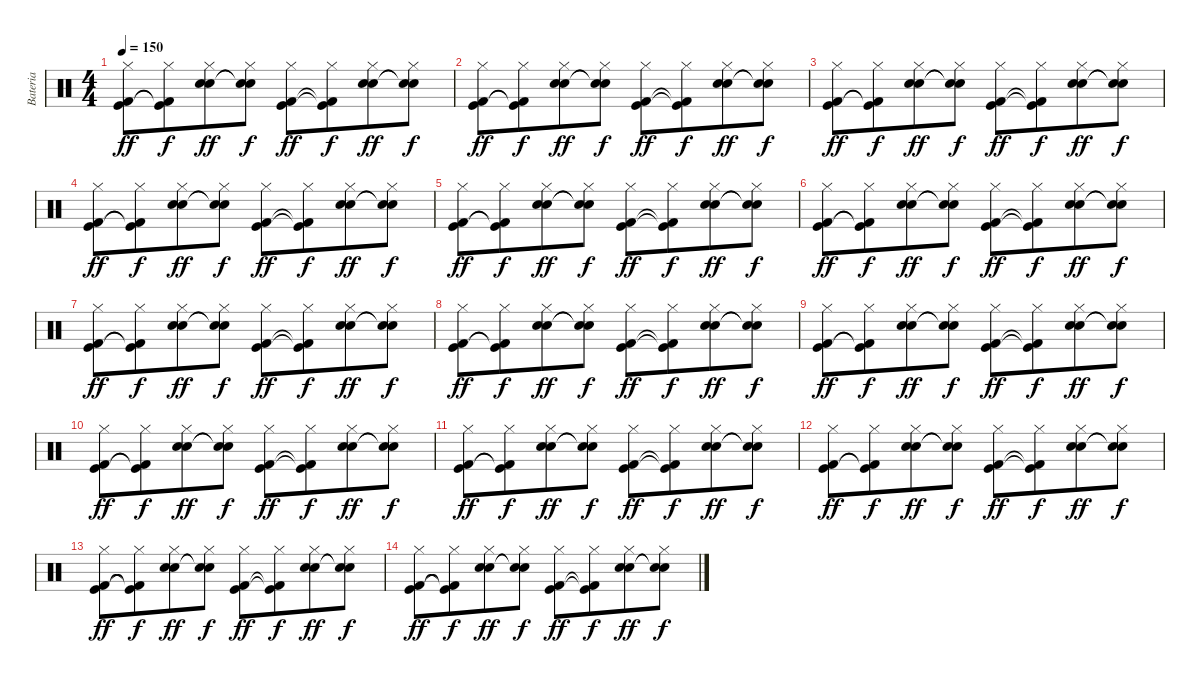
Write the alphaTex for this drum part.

\track ("Bateria" "Bateria") {instrument percussion}
\staff {score}
\articulation defaults
\ts (4 4)
\tempo 150
\clef neutral
\ks c
("Hi-Hat (closed)" "Kick (hit) 2" "Kick (hit)").8{dy ff} ("Hi-Hat (closed)" "Kick (hit)"{t} "Kick (hit) 2"{t}).8{dy f beam merge} ("Hi-Hat (closed)" "Snare (hit) 2" "Electric Snare (hit)").8{dy ff} ("Hi-Hat (closed)" "Snare (hit) 2"{t} "Electric Snare (hit)"{t}).8{dy f} ("Hi-Hat (closed)" "Kick (hit) 2" "Kick (hit)").8{dy ff} ("Hi-Hat (closed)" "Kick (hit) 2"{t} "Kick (hit)"{t}).8{dy f beam merge} ("Hi-Hat (closed)" "Snare (hit) 2" "Electric Snare (hit)").8{dy ff} ("Hi-Hat (closed)" "Snare (hit) 2"{t} "Electric Snare (hit)"{t}).8{dy f} |
("Hi-Hat (closed)" "Kick (hit) 2" "Kick (hit)").8{dy ff} ("Hi-Hat (closed)" "Kick (hit)"{t} "Kick (hit) 2"{t}).8{dy f beam merge} ("Hi-Hat (closed)" "Snare (hit) 2" "Electric Snare (hit)").8{dy ff} ("Hi-Hat (closed)" "Snare (hit) 2"{t} "Electric Snare (hit)"{t}).8{dy f} ("Hi-Hat (closed)" "Kick (hit) 2" "Kick (hit)").8{dy ff} ("Hi-Hat (closed)" "Kick (hit) 2"{t} "Kick (hit)"{t}).8{dy f beam merge} ("Hi-Hat (closed)" "Snare (hit) 2" "Electric Snare (hit)").8{dy ff} ("Hi-Hat (closed)" "Snare (hit) 2"{t} "Electric Snare (hit)"{t}).8{dy f} |
("Hi-Hat (closed)" "Kick (hit) 2" "Kick (hit)").8{dy ff volume 5} ("Hi-Hat (closed)" "Kick (hit)"{t} "Kick (hit) 2"{t}).8{dy f beam merge} ("Hi-Hat (closed)" "Snare (hit) 2" "Electric Snare (hit)").8{dy ff} ("Hi-Hat (closed)" "Snare (hit) 2"{t} "Electric Snare (hit)"{t}).8{dy f} ("Hi-Hat (closed)" "Kick (hit) 2" "Kick (hit)").8{dy ff} ("Hi-Hat (closed)" "Kick (hit) 2"{t} "Kick (hit)"{t}).8{dy f beam merge} ("Hi-Hat (closed)" "Snare (hit) 2" "Electric Snare (hit)").8{dy ff} ("Hi-Hat (closed)" "Snare (hit) 2"{t} "Electric Snare (hit)"{t}).8{dy f} |
("Hi-Hat (closed)" "Kick (hit) 2" "Kick (hit)").8{dy ff} ("Hi-Hat (closed)" "Kick (hit)"{t} "Kick (hit) 2"{t}).8{dy f beam merge} ("Hi-Hat (closed)" "Snare (hit) 2" "Electric Snare (hit)").8{dy ff} ("Hi-Hat (closed)" "Snare (hit) 2"{t} "Electric Snare (hit)"{t}).8{dy f} ("Hi-Hat (closed)" "Kick (hit) 2" "Kick (hit)").8{dy ff} ("Hi-Hat (closed)" "Kick (hit) 2"{t} "Kick (hit)"{t}).8{dy f beam merge} ("Hi-Hat (closed)" "Snare (hit) 2" "Electric Snare (hit)").8{dy ff} ("Hi-Hat (closed)" "Snare (hit) 2"{t} "Electric Snare (hit)"{t}).8{dy f} |
("Hi-Hat (closed)" "Kick (hit) 2" "Kick (hit)").8{dy ff} ("Hi-Hat (closed)" "Kick (hit)"{t} "Kick (hit) 2"{t}).8{dy f beam merge} ("Hi-Hat (closed)" "Snare (hit) 2" "Electric Snare (hit)").8{dy ff} ("Hi-Hat (closed)" "Snare (hit) 2"{t} "Electric Snare (hit)"{t}).8{dy f} ("Hi-Hat (closed)" "Kick (hit) 2" "Kick (hit)").8{dy ff} ("Hi-Hat (closed)" "Kick (hit) 2"{t} "Kick (hit)"{t}).8{dy f beam merge} ("Hi-Hat (closed)" "Snare (hit) 2" "Electric Snare (hit)").8{dy ff} ("Hi-Hat (closed)" "Snare (hit) 2"{t} "Electric Snare (hit)"{t}).8{dy f} |
("Hi-Hat (closed)" "Kick (hit) 2" "Kick (hit)").8{dy ff} ("Hi-Hat (closed)" "Kick (hit)"{t} "Kick (hit) 2"{t}).8{dy f beam merge} ("Hi-Hat (closed)" "Snare (hit) 2" "Electric Snare (hit)").8{dy ff} ("Hi-Hat (closed)" "Snare (hit) 2"{t} "Electric Snare (hit)"{t}).8{dy f} ("Hi-Hat (closed)" "Kick (hit) 2" "Kick (hit)").8{dy ff} ("Hi-Hat (closed)" "Kick (hit) 2"{t} "Kick (hit)"{t}).8{dy f beam merge} ("Hi-Hat (closed)" "Snare (hit) 2" "Electric Snare (hit)").8{dy ff} ("Hi-Hat (closed)" "Snare (hit) 2"{t} "Electric Snare (hit)"{t}).8{dy f} |
("Hi-Hat (closed)" "Kick (hit) 2" "Kick (hit)").8{dy ff volume 3} ("Hi-Hat (closed)" "Kick (hit)"{t} "Kick (hit) 2"{t}).8{dy f beam merge} ("Hi-Hat (closed)" "Snare (hit) 2" "Electric Snare (hit)").8{dy ff} ("Hi-Hat (closed)" "Snare (hit) 2"{t} "Electric Snare (hit)"{t}).8{dy f} ("Hi-Hat (closed)" "Kick (hit) 2" "Kick (hit)").8{dy ff} ("Hi-Hat (closed)" "Kick (hit) 2"{t} "Kick (hit)"{t}).8{dy f beam merge} ("Hi-Hat (closed)" "Snare (hit) 2" "Electric Snare (hit)").8{dy ff} ("Hi-Hat (closed)" "Snare (hit) 2"{t} "Electric Snare (hit)"{t}).8{dy f} |
("Hi-Hat (closed)" "Kick (hit) 2" "Kick (hit)").8{dy ff} ("Hi-Hat (closed)" "Kick (hit)"{t} "Kick (hit) 2"{t}).8{dy f beam merge} ("Hi-Hat (closed)" "Snare (hit) 2" "Electric Snare (hit)").8{dy ff} ("Hi-Hat (closed)" "Snare (hit) 2"{t} "Electric Snare (hit)"{t}).8{dy f} ("Hi-Hat (closed)" "Kick (hit) 2" "Kick (hit)").8{dy ff} ("Hi-Hat (closed)" "Kick (hit) 2"{t} "Kick (hit)"{t}).8{dy f beam merge} ("Hi-Hat (closed)" "Snare (hit) 2" "Electric Snare (hit)").8{dy ff} ("Hi-Hat (closed)" "Snare (hit) 2"{t} "Electric Snare (hit)"{t}).8{dy f} |
("Hi-Hat (closed)" "Kick (hit) 2" "Kick (hit)").8{dy ff} ("Hi-Hat (closed)" "Kick (hit)"{t} "Kick (hit) 2"{t}).8{dy f beam merge} ("Hi-Hat (closed)" "Snare (hit) 2" "Electric Snare (hit)").8{dy ff} ("Hi-Hat (closed)" "Snare (hit) 2"{t} "Electric Snare (hit)"{t}).8{dy f} ("Hi-Hat (closed)" "Kick (hit) 2" "Kick (hit)").8{dy ff} ("Hi-Hat (closed)" "Kick (hit) 2"{t} "Kick (hit)"{t}).8{dy f beam merge} ("Hi-Hat (closed)" "Snare (hit) 2" "Electric Snare (hit)").8{dy ff} ("Hi-Hat (closed)" "Snare (hit) 2"{t} "Electric Snare (hit)"{t}).8{dy f} |
("Hi-Hat (closed)" "Kick (hit) 2" "Kick (hit)").8{dy ff} ("Hi-Hat (closed)" "Kick (hit)"{t} "Kick (hit) 2"{t}).8{dy f beam merge} ("Hi-Hat (closed)" "Snare (hit) 2" "Electric Snare (hit)").8{dy ff} ("Hi-Hat (closed)" "Snare (hit) 2"{t} "Electric Snare (hit)"{t}).8{dy f} ("Hi-Hat (closed)" "Kick (hit) 2" "Kick (hit)").8{dy ff} ("Hi-Hat (closed)" "Kick (hit) 2"{t} "Kick (hit)"{t}).8{dy f beam merge} ("Hi-Hat (closed)" "Snare (hit) 2" "Electric Snare (hit)").8{dy ff} ("Hi-Hat (closed)" "Snare (hit) 2"{t} "Electric Snare (hit)"{t}).8{dy f} |
("Hi-Hat (closed)" "Kick (hit) 2" "Kick (hit)").8{dy ff volume 0} ("Hi-Hat (closed)" "Kick (hit)"{t} "Kick (hit) 2"{t}).8{dy f beam merge} ("Hi-Hat (closed)" "Snare (hit) 2" "Electric Snare (hit)").8{dy ff} ("Hi-Hat (closed)" "Snare (hit) 2"{t} "Electric Snare (hit)"{t}).8{dy f} ("Hi-Hat (closed)" "Kick (hit) 2" "Kick (hit)").8{dy ff} ("Hi-Hat (closed)" "Kick (hit) 2"{t} "Kick (hit)"{t}).8{dy f beam merge} ("Hi-Hat (closed)" "Snare (hit) 2" "Electric Snare (hit)").8{dy ff} ("Hi-Hat (closed)" "Snare (hit) 2"{t} "Electric Snare (hit)"{t}).8{dy f} |
("Hi-Hat (closed)" "Kick (hit) 2" "Kick (hit)").8{dy ff} ("Hi-Hat (closed)" "Kick (hit)"{t} "Kick (hit) 2"{t}).8{dy f beam merge} ("Hi-Hat (closed)" "Snare (hit) 2" "Electric Snare (hit)").8{dy ff} ("Hi-Hat (closed)" "Snare (hit) 2"{t} "Electric Snare (hit)"{t}).8{dy f} ("Hi-Hat (closed)" "Kick (hit) 2" "Kick (hit)").8{dy ff} ("Hi-Hat (closed)" "Kick (hit) 2"{t} "Kick (hit)"{t}).8{dy f beam merge} ("Hi-Hat (closed)" "Snare (hit) 2" "Electric Snare (hit)").8{dy ff} ("Hi-Hat (closed)" "Snare (hit) 2"{t} "Electric Snare (hit)"{t}).8{dy f} |
("Hi-Hat (closed)" "Kick (hit) 2" "Kick (hit)").8{dy ff} ("Hi-Hat (closed)" "Kick (hit)"{t} "Kick (hit) 2"{t}).8{dy f beam merge} ("Hi-Hat (closed)" "Snare (hit) 2" "Electric Snare (hit)").8{dy ff} ("Hi-Hat (closed)" "Snare (hit) 2"{t} "Electric Snare (hit)"{t}).8{dy f} ("Hi-Hat (closed)" "Kick (hit) 2" "Kick (hit)").8{dy ff} ("Hi-Hat (closed)" "Kick (hit) 2"{t} "Kick (hit)"{t}).8{dy f beam merge} ("Hi-Hat (closed)" "Snare (hit) 2" "Electric Snare (hit)").8{dy ff} ("Hi-Hat (closed)" "Snare (hit) 2"{t} "Electric Snare (hit)"{t}).8{dy f} |
("Hi-Hat (closed)" "Kick (hit) 2" "Kick (hit)").8{dy ff} ("Hi-Hat (closed)" "Kick (hit)"{t} "Kick (hit) 2"{t}).8{dy f beam merge} ("Hi-Hat (closed)" "Snare (hit) 2" "Electric Snare (hit)").8{dy ff} ("Hi-Hat (closed)" "Snare (hit) 2"{t} "Electric Snare (hit)"{t}).8{dy f} ("Hi-Hat (closed)" "Kick (hit) 2" "Kick (hit)").8{dy ff} ("Hi-Hat (closed)" "Kick (hit) 2"{t} "Kick (hit)"{t}).8{dy f beam merge} ("Hi-Hat (closed)" "Snare (hit) 2" "Electric Snare (hit)").8{dy ff} ("Hi-Hat (closed)" "Snare (hit) 2"{t} "Electric Snare (hit)"{t}).8{dy f}
